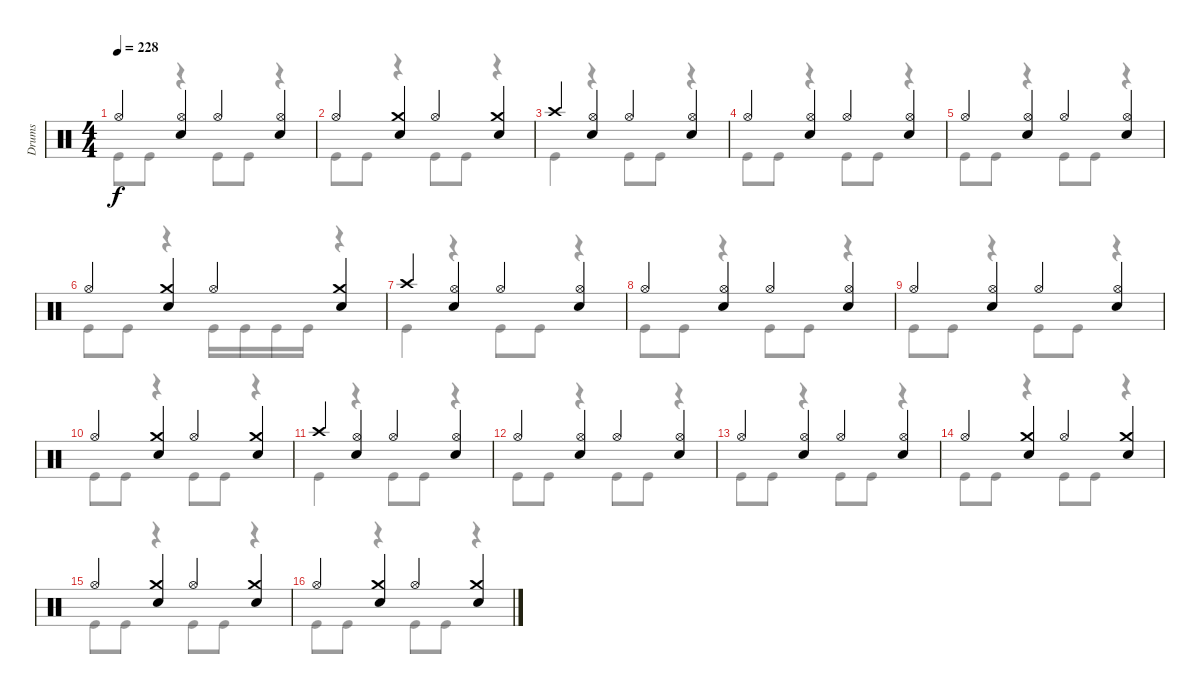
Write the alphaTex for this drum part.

\track ("Drums" "Drums") {instrument percussion}
\staff {score}
\articulation defaults
\voice
\ts (4 4)
\tempo 228
\clef neutral
\ks c "Hi-Hat (open)".4{dy f}
("Hi-Hat (open)" "Snare (hit) 2").4 "Hi-Hat (open)".4 ("Hi-Hat (open)" "Snare (hit) 2").4 |
"Hi-Hat (open)".4 ("Crash medium (hit)" "Snare (hit) 2").4 "Hi-Hat (open)".4 ("Crash medium (hit)" "Snare (hit) 2").4 |
"Crash high (hit)".4 ("Hi-Hat (open)" "Snare (hit) 2").4 "Hi-Hat (open)".4 ("Hi-Hat (open)" "Snare (hit) 2").4 |
"Hi-Hat (open)".4 ("Hi-Hat (open)" "Snare (hit) 2").4 "Hi-Hat (open)".4 ("Hi-Hat (open)" "Snare (hit) 2").4 |
"Hi-Hat (open)".4 ("Hi-Hat (open)" "Snare (hit) 2").4 "Hi-Hat (open)".4 ("Hi-Hat (open)" "Snare (hit) 2").4 |
"Hi-Hat (open)".4 ("Crash medium (hit)" "Snare (hit) 2").4 "Hi-Hat (open)".4 ("Crash medium (hit)" "Snare (hit) 2").4 |
"Crash high (hit)".4 ("Hi-Hat (open)" "Snare (hit) 2").4 "Hi-Hat (open)".4 ("Hi-Hat (open)" "Snare (hit) 2").4 |
"Hi-Hat (open)".4 ("Hi-Hat (open)" "Snare (hit) 2").4 "Hi-Hat (open)".4 ("Hi-Hat (open)" "Snare (hit) 2").4 |
"Hi-Hat (open)".4 ("Hi-Hat (open)" "Snare (hit) 2").4 "Hi-Hat (open)".4 ("Hi-Hat (open)" "Snare (hit) 2").4 |
"Hi-Hat (open)".4 ("Crash medium (hit)" "Snare (hit) 2").4 "Hi-Hat (open)".4 ("Crash medium (hit)" "Snare (hit) 2").4 |
"Crash high (hit)".4 ("Hi-Hat (open)" "Snare (hit) 2").4 "Hi-Hat (open)".4 ("Hi-Hat (open)" "Snare (hit) 2").4 |
"Hi-Hat (open)".4 ("Hi-Hat (open)" "Snare (hit) 2").4 "Hi-Hat (open)".4 ("Hi-Hat (open)" "Snare (hit) 2").4 |
"Hi-Hat (open)".4 ("Hi-Hat (open)" "Snare (hit) 2").4 "Hi-Hat (open)".4 ("Hi-Hat (open)" "Snare (hit) 2").4 |
"Hi-Hat (open)".4 ("Crash medium (hit)" "Snare (hit) 2").4 "Hi-Hat (open)".4 ("Crash medium (hit)" "Snare (hit) 2").4 |
"Hi-Hat (open)".4 ("Crash medium (hit)" "Snare (hit) 2").4 "Hi-Hat (open)".4 ("Crash medium (hit)" "Snare (hit) 2").4 |
"Hi-Hat (open)".4 ("Crash medium (hit)" "Snare (hit) 2").4 "Hi-Hat (open)".4 ("Crash medium (hit)" "Snare (hit) 2").4
\voice
\clef neutral
\ottava regular
\simile none
\ks c "Kick (hit)".8{dy f} "Kick (hit)".8
r.4 "Kick (hit)".8 "Kick (hit)".8 r.4 |
"Kick (hit)".8 "Kick (hit)".8 r.4 "Kick (hit)".8 "Kick (hit)".8 r.4 |
"Kick (hit)".4 r.4 "Kick (hit)".8 "Kick (hit)".8 r.4 |
"Kick (hit)".8 "Kick (hit)".8 r.4 "Kick (hit)".8 "Kick (hit)".8 r.4 |
"Kick (hit)".8 "Kick (hit)".8 r.4 "Kick (hit)".8 "Kick (hit)".8 r.4 |
"Kick (hit)".8 "Kick (hit)".8 r.4 "Kick (hit)".16 "Kick (hit)".16 "Kick (hit)".16 "Kick (hit)".16 r.4 |
"Kick (hit)".4 r.4 "Kick (hit)".8 "Kick (hit)".8 r.4 |
"Kick (hit)".8 "Kick (hit)".8 r.4 "Kick (hit)".8 "Kick (hit)".8 r.4 |
"Kick (hit)".8 "Kick (hit)".8 r.4 "Kick (hit)".8 "Kick (hit)".8 r.4 |
"Kick (hit)".8 "Kick (hit)".8 r.4 "Kick (hit)".8 "Kick (hit)".8 r.4 |
"Kick (hit)".4 r.4 "Kick (hit)".8 "Kick (hit)".8 r.4 |
"Kick (hit)".8 "Kick (hit)".8 r.4 "Kick (hit)".8 "Kick (hit)".8 r.4 |
"Kick (hit)".8 "Kick (hit)".8 r.4 "Kick (hit)".8 "Kick (hit)".8 r.4 |
"Kick (hit)".8 "Kick (hit)".8 r.4 "Kick (hit)".8 "Kick (hit)".8 r.4 |
"Kick (hit)".8 "Kick (hit)".8 r.4 "Kick (hit)".8 "Kick (hit)".8 r.4 |
"Kick (hit)".8 "Kick (hit)".8 r.4 "Kick (hit)".8 "Kick (hit)".8 r.4
